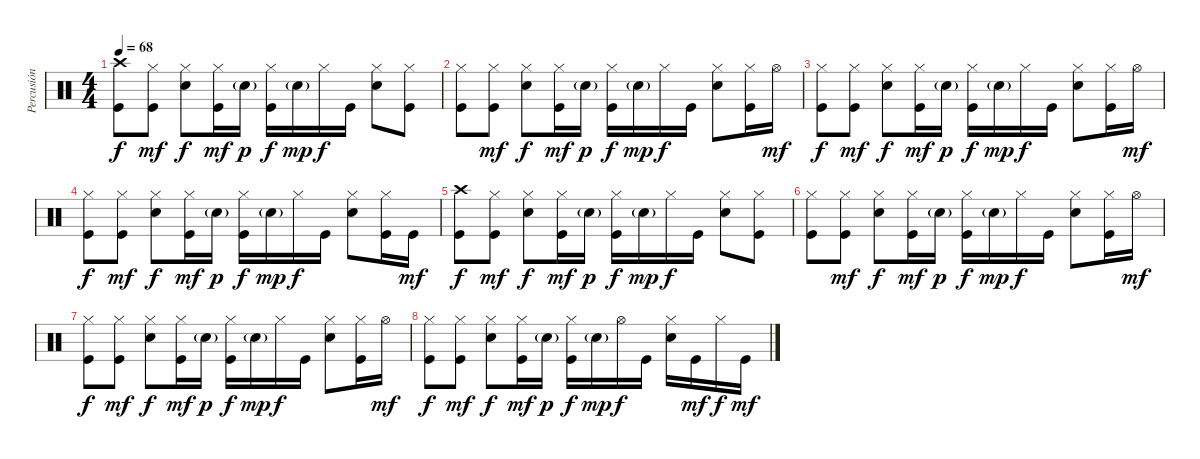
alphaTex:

\track ("Percusión" "Percusión") {instrument percussion}
\staff {score}
\articulation defaults
\ts (4 4)
\tempo 68
\clef neutral
\ks c
("Crash high (hit)" "Kick (hit)").8{dy f} ("Hi-Hat (closed)" "Kick (hit)").8{dy mf} ("Hi-Hat (closed)" "Snare (hit) 2").8{dy f} ("Hi-Hat (closed)" "Kick (hit)").16{dy mf} "Snare (hit) 2"{g}.16{dy p} ("Hi-Hat (closed)" "Kick (hit)").16{dy f} "Snare (hit) 2"{g}.16{dy mp} "Hi-Hat (closed)".16{dy f} "Kick (hit)".16 ("Hi-Hat (closed)" "Snare (hit) 2").8 ("Hi-Hat (closed)" "Kick (hit)").8 |
("Hi-Hat (closed)" "Kick (hit)").8 ("Hi-Hat (closed)" "Kick (hit)").8{dy mf} ("Hi-Hat (closed)" "Snare (hit) 2").8{dy f} ("Hi-Hat (closed)" "Kick (hit)").16{dy mf} "Snare (hit) 2"{g}.16{dy p} ("Hi-Hat (closed)" "Kick (hit)").16{dy f} "Snare (hit) 2"{g}.16{dy mp} "Hi-Hat (closed)".16{dy f} "Kick (hit)".16 ("Hi-Hat (closed)" "Snare (hit) 2").8 ("Hi-Hat (closed)" "Kick (hit)").16 "Hi-Hat (open)".16{dy mf} |
("Hi-Hat (closed)" "Kick (hit)").8{dy f} ("Hi-Hat (closed)" "Kick (hit)").8{dy mf} ("Hi-Hat (closed)" "Snare (hit) 2").8{dy f} ("Hi-Hat (closed)" "Kick (hit)").16{dy mf} "Snare (hit) 2"{g}.16{dy p} ("Hi-Hat (closed)" "Kick (hit)").16{dy f} "Snare (hit) 2"{g}.16{dy mp} "Hi-Hat (closed)".16{dy f} "Kick (hit)".16 ("Hi-Hat (closed)" "Snare (hit) 2").8 ("Hi-Hat (closed)" "Kick (hit)").16 "Hi-Hat (open)".16{dy mf} |
("Hi-Hat (closed)" "Kick (hit)").8{dy f} ("Hi-Hat (closed)" "Kick (hit)").8{dy mf} ("Hi-Hat (closed)" "Snare (hit) 2").8{dy f} ("Hi-Hat (closed)" "Kick (hit)").16{dy mf} "Snare (hit) 2"{g}.16{dy p} ("Hi-Hat (closed)" "Kick (hit)").16{dy f} "Snare (hit) 2"{g}.16{dy mp} "Hi-Hat (closed)".16{dy f} "Kick (hit)".16 ("Hi-Hat (closed)" "Snare (hit) 2").8 ("Hi-Hat (closed)" "Kick (hit)").16 "Kick (hit)".16{dy mf} |
("Crash high (hit)" "Kick (hit)").8{dy f} ("Hi-Hat (closed)" "Kick (hit)").8{dy mf} ("Hi-Hat (closed)" "Snare (hit) 2").8{dy f} ("Hi-Hat (closed)" "Kick (hit)").16{dy mf} "Snare (hit) 2"{g}.16{dy p} ("Hi-Hat (closed)" "Kick (hit)").16{dy f} "Snare (hit) 2"{g}.16{dy mp} "Hi-Hat (closed)".16{dy f} "Kick (hit)".16 ("Hi-Hat (closed)" "Snare (hit) 2").8 ("Hi-Hat (closed)" "Kick (hit)").8 |
("Hi-Hat (closed)" "Kick (hit)").8 ("Hi-Hat (closed)" "Kick (hit)").8{dy mf} ("Hi-Hat (closed)" "Snare (hit) 2").8{dy f} ("Hi-Hat (closed)" "Kick (hit)").16{dy mf} "Snare (hit) 2"{g}.16{dy p} ("Hi-Hat (closed)" "Kick (hit)").16{dy f} "Snare (hit) 2"{g}.16{dy mp} "Hi-Hat (closed)".16{dy f} "Kick (hit)".16 ("Hi-Hat (closed)" "Snare (hit) 2").8 ("Hi-Hat (closed)" "Kick (hit)").16 "Hi-Hat (open)".16{dy mf} |
("Hi-Hat (closed)" "Kick (hit)").8{dy f} ("Hi-Hat (closed)" "Kick (hit)").8{dy mf} ("Hi-Hat (closed)" "Snare (hit) 2").8{dy f} ("Hi-Hat (closed)" "Kick (hit)").16{dy mf} "Snare (hit) 2"{g}.16{dy p} ("Hi-Hat (closed)" "Kick (hit)").16{dy f} "Snare (hit) 2"{g}.16{dy mp} "Hi-Hat (closed)".16{dy f} "Kick (hit)".16 ("Hi-Hat (closed)" "Snare (hit) 2").8 ("Hi-Hat (closed)" "Kick (hit)").16 "Hi-Hat (open)".16{dy mf} |
("Hi-Hat (closed)" "Kick (hit)").8{dy f} ("Hi-Hat (closed)" "Kick (hit)").8{dy mf} ("Hi-Hat (closed)" "Snare (hit) 2").8{dy f} ("Hi-Hat (closed)" "Kick (hit)").16{dy mf} "Snare (hit) 2"{g}.16{dy p} ("Hi-Hat (closed)" "Kick (hit)").16{dy f} "Snare (hit) 2"{g}.16{dy mp} "Hi-Hat (open)".16{dy f} "Kick (hit)".16 ("Hi-Hat (closed)" "Snare (hit) 2").16 "Kick (hit)".16{dy mf} "Hi-Hat (closed)".16{dy f} "Kick (hit)".16{dy mf}
